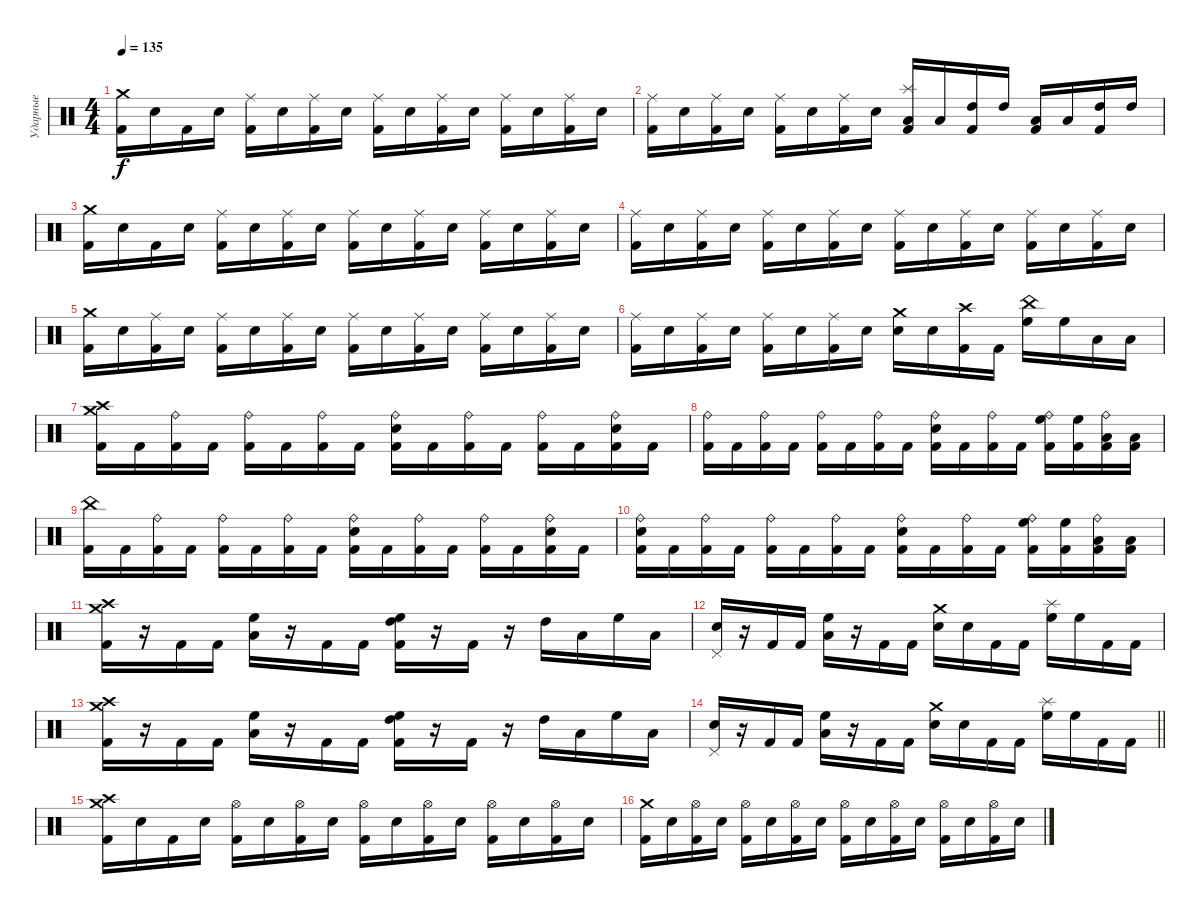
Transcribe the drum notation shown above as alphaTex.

\track ("Ударные" "Ударные") {instrument percussion}
\staff {score}
\articulation defaults
\ts (4 4)
\tempo 135
\clef neutral
\ks c
("Crash medium (hit)" "Kick (hit) 2").16{dy f} "Electric Snare (hit)".16 "Kick (hit) 2".16 "Electric Snare (hit)".16 ("Ride (middle)" "Kick (hit) 2").16 "Electric Snare (hit)".16 ("Ride (middle)" "Kick (hit) 2").16 "Electric Snare (hit)".16 ("Ride (middle)" "Kick (hit) 2").16 "Electric Snare (hit)".16 ("Ride (middle)" "Kick (hit) 2").16 "Electric Snare (hit)".16 ("Ride (middle)" "Kick (hit) 2").16 "Electric Snare (hit)".16 ("Ride (middle)" "Kick (hit) 2").16 "Electric Snare (hit)".16 |
("Ride (middle)" "Kick (hit) 2").16 "Electric Snare (hit)".16 ("Ride (middle)" "Kick (hit) 2").16 "Electric Snare (hit)".16 ("Ride (middle)" "Kick (hit) 2").16 "Electric Snare (hit)".16 ("Ride (middle)" "Kick (hit) 2").16 "Electric Snare (hit)".16 ("Splash (hit)" "Low Tom (hit)" "Kick (hit) 2").16 "Low Tom (hit)".16 ("High Tom (hit)" "Kick (hit) 2").16 "High Tom (hit)".16 ("Low Tom (hit)" "Kick (hit) 2").16 "Low Tom (hit)".16 ("High Tom (hit)" "Kick (hit) 2").16 "High Tom (hit)".16 |
("Crash medium (hit)" "Kick (hit) 2").16 "Electric Snare (hit)".16 "Kick (hit) 2".16 "Electric Snare (hit)".16 ("Ride (middle)" "Kick (hit) 2").16 "Electric Snare (hit)".16 ("Ride (middle)" "Kick (hit) 2").16 "Electric Snare (hit)".16 ("Ride (middle)" "Kick (hit) 2").16 "Electric Snare (hit)".16 ("Ride (middle)" "Kick (hit) 2").16 "Electric Snare (hit)".16 ("Ride (middle)" "Kick (hit) 2").16 "Electric Snare (hit)".16 ("Ride (middle)" "Kick (hit) 2").16 "Electric Snare (hit)".16 |
("Ride (middle)" "Kick (hit) 2").16 "Electric Snare (hit)".16 ("Ride (middle)" "Kick (hit) 2").16 "Electric Snare (hit)".16 ("Ride (middle)" "Kick (hit) 2").16 "Electric Snare (hit)".16 ("Ride (middle)" "Kick (hit) 2").16 "Electric Snare (hit)".16 ("Ride (middle)" "Kick (hit) 2").16 "Electric Snare (hit)".16 ("Ride (middle)" "Kick (hit) 2").16 "Electric Snare (hit)".16 ("Ride (middle)" "Kick (hit) 2").16 "Electric Snare (hit)".16 ("Ride (middle)" "Kick (hit) 2").16 "Electric Snare (hit)".16 |
("Crash medium (hit)" "Kick (hit) 2").16 "Electric Snare (hit)".16 ("Ride (middle)" "Kick (hit) 2").16 "Electric Snare (hit)".16 ("Ride (middle)" "Kick (hit) 2").16 "Electric Snare (hit)".16 ("Ride (middle)" "Kick (hit) 2").16 "Electric Snare (hit)".16 ("Ride (middle)" "Kick (hit) 2").16 "Electric Snare (hit)".16 ("Ride (middle)" "Kick (hit) 2").16 "Electric Snare (hit)".16 ("Ride (middle)" "Kick (hit) 2").16 "Electric Snare (hit)".16 ("Ride (middle)" "Kick (hit) 2").16 "Electric Snare (hit)".16 |
("Ride (middle)" "Kick (hit) 2").16 "Electric Snare (hit)".16 ("Ride (middle)" "Kick (hit) 2").16 "Electric Snare (hit)".16 ("Ride (middle)" "Kick (hit) 2").16 "Electric Snare (hit)".16 ("Ride (middle)" "Kick (hit) 2").16 "Electric Snare (hit)".16 ("Crash medium (hit)" "Electric Snare (hit)").16 "Electric Snare (hit)".16 ("Crash high (hit)" "Kick (hit) 2").16 "Kick (hit) 2".16 ("China (hit)" "High Floor Tom (hit)").16 "High Floor Tom (hit)".16 "Low Tom (hit)".16 "Low Tom (hit)".16 |
("Crash medium (hit)" "Crash high (hit)" "Kick (hit) 2").16 "Kick (hit) 2".16 ("Ride (bell)" "Kick (hit) 2").16 "Kick (hit) 2".16 ("Ride (bell)" "Kick (hit) 2").16 "Kick (hit) 2".16 ("Ride (bell)" "Kick (hit) 2").16 "Kick (hit) 2".16 ("Ride (bell)" "Electric Snare (hit)" "Kick (hit) 2").16 "Kick (hit) 2".16 ("Ride (bell)" "Kick (hit) 2").16 "Kick (hit) 2".16 ("Ride (bell)" "Kick (hit) 2").16 "Kick (hit) 2".16 ("Ride (bell)" "Electric Snare (hit)" "Kick (hit) 2").16 "Kick (hit) 2".16 |
("Ride (bell)" "Kick (hit) 2").16 "Kick (hit) 2".16 ("Ride (bell)" "Kick (hit) 2").16 "Kick (hit) 2".16 ("Ride (bell)" "Kick (hit) 2").16 "Kick (hit) 2".16 ("Ride (bell)" "Kick (hit) 2").16 "Kick (hit) 2".16 ("Ride (bell)" "Electric Snare (hit)" "Kick (hit) 2").16 "Kick (hit) 2".16 ("Ride (bell)" "Kick (hit) 2").16 "Kick (hit) 2".16 ("Ride (bell)" "High Floor Tom (hit)" "Kick (hit) 2").16 ("High Floor Tom (hit)" "Kick (hit) 2").16 ("Ride (bell)" "Low Tom (hit)" "Kick (hit) 2").16 ("Low Tom (hit)" "Kick (hit) 2").16 |
("China (hit)" "Kick (hit) 2").16 "Kick (hit) 2".16 ("Ride (bell)" "Kick (hit) 2").16 "Kick (hit) 2".16 ("Ride (bell)" "Kick (hit) 2").16 "Kick (hit) 2".16 ("Ride (bell)" "Kick (hit) 2").16 "Kick (hit) 2".16 ("Ride (bell)" "Electric Snare (hit)" "Kick (hit) 2").16 "Kick (hit) 2".16 ("Ride (bell)" "Kick (hit) 2").16 "Kick (hit) 2".16 ("Ride (bell)" "Kick (hit) 2").16 "Kick (hit) 2".16 ("Ride (bell)" "Electric Snare (hit)" "Kick (hit) 2").16 "Kick (hit) 2".16 |
("Ride (bell)" "Electric Snare (hit)" "Kick (hit) 2").16 "Kick (hit) 2".16 ("Ride (bell)" "Kick (hit) 2").16 "Kick (hit) 2".16 ("Ride (bell)" "Kick (hit) 2").16 "Kick (hit) 2".16 ("Ride (bell)" "Kick (hit) 2").16 "Kick (hit) 2".16 ("Ride (bell)" "Electric Snare (hit)" "Kick (hit) 2").16 "Kick (hit) 2".16 ("Ride (bell)" "Kick (hit) 2").16 "Kick (hit) 2".16 ("Ride (bell)" "High Floor Tom (hit)" "Kick (hit) 2").16 ("High Floor Tom (hit)" "Kick (hit) 2").16 ("Ride (bell)" "Low Tom (hit)" "Kick (hit) 2").16 ("Low Tom (hit)" "Kick (hit) 2").16 |
("Crash medium (hit)" "Crash high (hit)" "Kick (hit) 2").16 r.16 "Kick (hit) 2".16 "Kick (hit) 2".16 ("Low Tom (hit)" "High Floor Tom (hit)").16 r.16 "Kick (hit) 2".16 "Kick (hit) 2".16 ("High Tom (hit)" "High Floor Tom (hit)" "Kick (hit) 2").16 r.16 "Kick (hit) 2".16 r.16 "High Tom (hit)".16 "Low Tom (hit)".16 "High Floor Tom (hit)".16 "Low Tom (hit)".16 |
("Pedal Hi-Hat (hit)" "Electric Snare (hit)").16 r.16 "Kick (hit) 2".16 "Kick (hit) 2".16 ("Low Tom (hit)" "High Floor Tom (hit)").16 r.16 "Kick (hit) 2".16 "Kick (hit) 2".16 ("Crash medium (hit)" "Electric Snare (hit)").16 "Electric Snare (hit)".16 "Kick (hit) 2".16 "Kick (hit) 2".16 ("Splash (hit)" "High Floor Tom (hit)").16 "High Floor Tom (hit)".16 "Kick (hit) 2".16 "Kick (hit) 2".16 |
("Crash medium (hit)" "Crash high (hit)" "Kick (hit) 2").16 r.16 "Kick (hit) 2".16 "Kick (hit) 2".16 ("Low Tom (hit)" "High Floor Tom (hit)").16 r.16 "Kick (hit) 2".16 "Kick (hit) 2".16 ("High Tom (hit)" "High Floor Tom (hit)" "Kick (hit) 2").16 r.16 "Kick (hit) 2".16 r.16 "High Tom (hit)".16 "Low Tom (hit)".16 "High Floor Tom (hit)".16 "Low Tom (hit)".16 |
\barLineRight lightlight
("Pedal Hi-Hat (hit)" "Electric Snare (hit)").16 r.16 "Kick (hit) 2".16 "Kick (hit) 2".16 ("Low Tom (hit)" "High Floor Tom (hit)").16 r.16 "Kick (hit) 2".16 "Kick (hit) 2".16 ("Crash medium (hit)" "Electric Snare (hit)").16 "Electric Snare (hit)".16 "Kick (hit) 2".16 "Kick (hit) 2".16 ("Splash (hit)" "High Floor Tom (hit)").16 "High Floor Tom (hit)".16 "Kick (hit) 2".16 "Kick (hit) 2".16 |
("Crash medium (hit)" "Crash high (hit)" "Kick (hit) 2").16 "Electric Snare (hit)".16 "Kick (hit) 2".16 "Electric Snare (hit)".16 ("Hi-Hat (open)" "Kick (hit) 2").16 "Electric Snare (hit)".16 ("Hi-Hat (open)" "Kick (hit) 2").16 "Electric Snare (hit)".16 ("Hi-Hat (open)" "Kick (hit) 2").16 "Electric Snare (hit)".16 ("Hi-Hat (open)" "Kick (hit) 2").16 "Electric Snare (hit)".16 ("Hi-Hat (open)" "Kick (hit) 2").16 "Electric Snare (hit)".16 ("Hi-Hat (open)" "Kick (hit) 2").16 "Electric Snare (hit)".16 |
("Crash medium (hit)" "Kick (hit) 2").16 "Electric Snare (hit)".16 ("Hi-Hat (open)" "Kick (hit) 2").16 "Electric Snare (hit)".16 ("Hi-Hat (open)" "Kick (hit) 2").16 "Electric Snare (hit)".16 ("Hi-Hat (open)" "Kick (hit) 2").16 "Electric Snare (hit)".16 ("Hi-Hat (open)" "Kick (hit) 2").16 "Electric Snare (hit)".16 ("Hi-Hat (open)" "Kick (hit) 2").16 "Electric Snare (hit)".16 ("Hi-Hat (open)" "Kick (hit) 2").16 "Electric Snare (hit)".16 ("Hi-Hat (open)" "Kick (hit) 2").16 "Electric Snare (hit)".16
